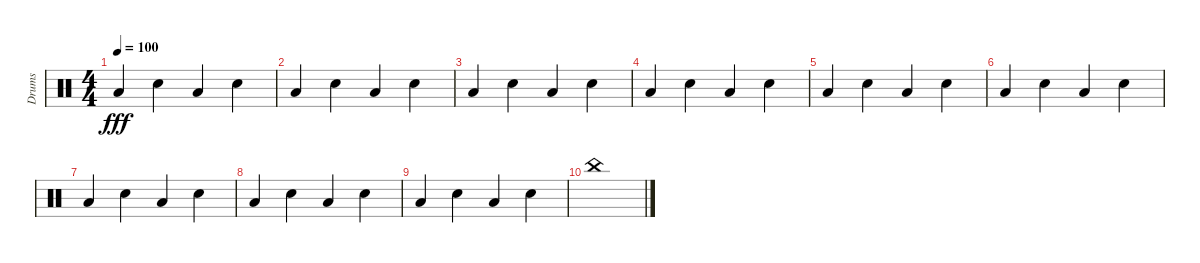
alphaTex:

\track ("Drums" "Drums") {instrument percussion}
\staff {score}
\articulation defaults
\ts (4 4)
\tempo 100
\clef neutral
\ks c "Low Tom (hit)".4{dy fff} "Hand Clap (hit)".4 "Low Tom (hit)".4 "Hand Clap (hit)".4
|
"Low Tom (hit)".4 "Hand Clap (hit)".4 "Low Tom (hit)".4 "Hand Clap (hit)".4 |
"Low Tom (hit)".4 "Hand Clap (hit)".4 "Low Tom (hit)".4 "Hand Clap (hit)".4 |
"Low Tom (hit)".4 "Hand Clap (hit)".4 "Low Tom (hit)".4 "Hand Clap (hit)".4 |
"Low Tom (hit)".4 "Hand Clap (hit)".4 "Low Tom (hit)".4 "Hand Clap (hit)".4 |
"Low Tom (hit)".4 "Hand Clap (hit)".4 "Low Tom (hit)".4 "Hand Clap (hit)".4 |
"Low Tom (hit)".4 "Hand Clap (hit)".4 "Low Tom (hit)".4 "Hand Clap (hit)".4 |
"Low Tom (hit)".4 "Hand Clap (hit)".4 "Low Tom (hit)".4 "Hand Clap (hit)".4 |
"Low Tom (hit)".4 "Hand Clap (hit)".4 "Low Tom (hit)".4 "Hand Clap (hit)".4 |
"China (hit)".1
